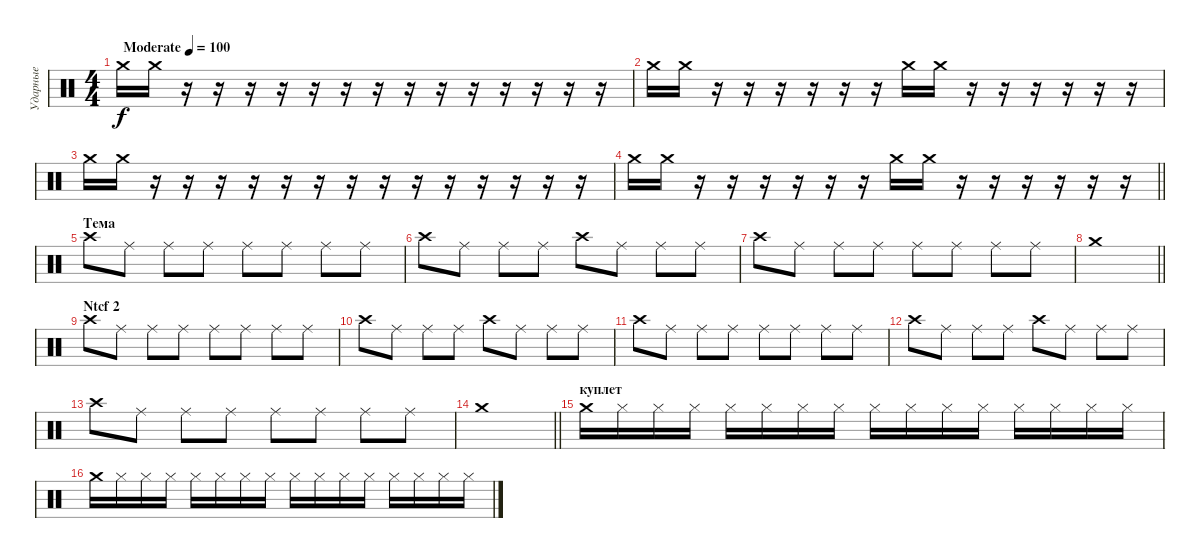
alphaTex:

\track ("Ударные" "Ударные") {instrument percussion}
\staff {score}
\articulation defaults
\ts (4 4)
\tempo (100 "Moderate")
\clef neutral
\ks c "Crash medium (hit)".16{dy f} "Crash medium (hit)".16
r.16 r.16 r.16 r.16 r.16 r.16 r.16 r.16 r.16 r.16 r.16 r.16 r.16 r.16 |
"Crash medium (hit)".16 "Crash medium (hit)".16 r.16 r.16 r.16 r.16 r.16 r.16 "Crash medium (hit)".16 "Crash medium (hit)".16 r.16 r.16 r.16 r.16 r.16 r.16 |
"Crash medium (hit)".16 "Crash medium (hit)".16 r.16 r.16 r.16 r.16 r.16 r.16 r.16 r.16 r.16 r.16 r.16 r.16 r.16 r.16 |
\barLineRight lightlight "Crash medium (hit)".16 "Crash medium (hit)".16
r.16 r.16 r.16 r.16 r.16 r.16 "Crash medium (hit)".16 "Crash medium (hit)".16 r.16 r.16 r.16 r.16 r.16 r.16 |
\section ("" "Тема")
"Crash high (hit)".8 "Ride (middle)".8 "Ride (middle)".8 "Ride (middle)".8 "Ride (middle)".8 "Ride (middle)".8 "Ride (middle)".8 "Ride (middle)".8 |
"Crash high (hit)".8 "Ride (middle)".8 "Ride (middle)".8 "Ride (middle)".8 "Crash high (hit)".8 "Ride (middle)".8 "Ride (middle)".8 "Ride (middle)".8 |
"Crash high (hit)".8 "Ride (middle)".8 "Ride (middle)".8 "Ride (middle)".8 "Ride (middle)".8 "Ride (middle)".8 "Ride (middle)".8 "Ride (middle)".8 |
\barLineRight lightlight "Crash medium (hit)".1
|
\section ("" "Ntcf 2")
"Crash high (hit)".8 "Ride (middle)".8 "Ride (middle)".8 "Ride (middle)".8 "Ride (middle)".8 "Ride (middle)".8 "Ride (middle)".8 "Ride (middle)".8 |
"Crash high (hit)".8 "Ride (middle)".8 "Ride (middle)".8 "Ride (middle)".8 "Crash high (hit)".8 "Ride (middle)".8 "Ride (middle)".8 "Ride (middle)".8 |
"Crash high (hit)".8 "Ride (middle)".8 "Ride (middle)".8 "Ride (middle)".8 "Ride (middle)".8 "Ride (middle)".8 "Ride (middle)".8 "Ride (middle)".8 |
"Crash high (hit)".8 "Ride (middle)".8 "Ride (middle)".8 "Ride (middle)".8 "Crash high (hit)".8 "Ride (middle)".8 "Ride (middle)".8 "Ride (middle)".8 |
"Crash high (hit)".8 "Ride (middle)".8 "Ride (middle)".8 "Ride (middle)".8 "Ride (middle)".8 "Ride (middle)".8 "Ride (middle)".8 "Ride (middle)".8 |
\barLineRight lightlight "Crash medium (hit)".1
|
\section ("" "куплет")
"Crash medium (hit)".16 "Hi-Hat (closed)".16 "Hi-Hat (closed)".16 "Hi-Hat (closed)".16 "Hi-Hat (closed)".16 "Hi-Hat (closed)".16 "Hi-Hat (closed)".16 "Hi-Hat (closed)".16 "Hi-Hat (closed)".16 "Hi-Hat (closed)".16 "Hi-Hat (closed)".16 "Hi-Hat (closed)".16 "Hi-Hat (closed)".16 "Hi-Hat (closed)".16 "Hi-Hat (closed)".16 "Hi-Hat (closed)".16 |
"Crash medium (hit)".16 "Hi-Hat (closed)".16 "Hi-Hat (closed)".16 "Hi-Hat (closed)".16 "Hi-Hat (closed)".16 "Hi-Hat (closed)".16 "Hi-Hat (closed)".16 "Hi-Hat (closed)".16 "Hi-Hat (closed)".16 "Hi-Hat (closed)".16 "Hi-Hat (closed)".16 "Hi-Hat (closed)".16 "Hi-Hat (closed)".16 "Hi-Hat (closed)".16 "Hi-Hat (closed)".16 "Hi-Hat (closed)".16
